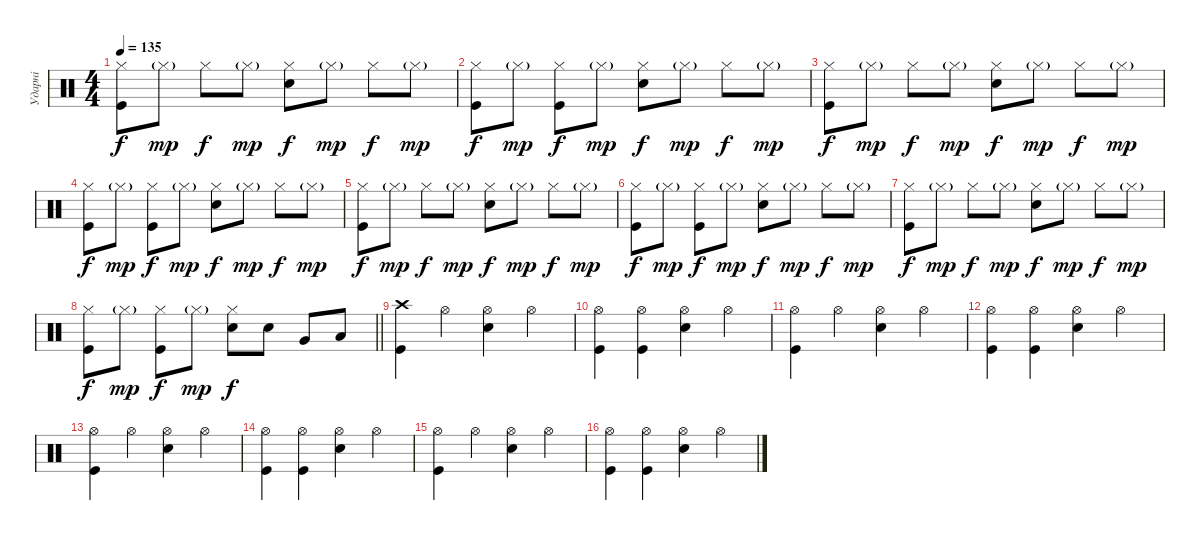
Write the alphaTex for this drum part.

\track ("Ударні" "Ударні") {instrument percussion}
\staff {score}
\articulation defaults
\ts (4 4)
\tempo 135
\clef neutral
\ks c
("Hi-Hat (closed)" "Kick (hit)").8{dy f} "Hi-Hat (closed)"{g}.8{dy mp} "Hi-Hat (closed)".8{dy f} "Hi-Hat (closed)"{g}.8{dy mp} ("Snare (hit) 2" "Hi-Hat (closed)").8{dy f} "Hi-Hat (closed)"{g}.8{dy mp} "Hi-Hat (closed)".8{dy f} "Hi-Hat (closed)"{g}.8{dy mp} |
("Hi-Hat (closed)" "Kick (hit)").8{dy f} "Hi-Hat (closed)"{g}.8{dy mp} ("Hi-Hat (closed)" "Kick (hit)").8{dy f} "Hi-Hat (closed)"{g}.8{dy mp} ("Snare (hit) 2" "Hi-Hat (closed)").8{dy f} "Hi-Hat (closed)"{g}.8{dy mp} "Hi-Hat (closed)".8{dy f} "Hi-Hat (closed)"{g}.8{dy mp} |
("Hi-Hat (closed)" "Kick (hit)").8{dy f} "Hi-Hat (closed)"{g}.8{dy mp} "Hi-Hat (closed)".8{dy f} "Hi-Hat (closed)"{g}.8{dy mp} ("Snare (hit) 2" "Hi-Hat (closed)").8{dy f} "Hi-Hat (closed)"{g}.8{dy mp} "Hi-Hat (closed)".8{dy f} "Hi-Hat (closed)"{g}.8{dy mp} |
("Hi-Hat (closed)" "Kick (hit)").8{dy f} "Hi-Hat (closed)"{g}.8{dy mp} ("Hi-Hat (closed)" "Kick (hit)").8{dy f} "Hi-Hat (closed)"{g}.8{dy mp} ("Snare (hit) 2" "Hi-Hat (closed)").8{dy f} "Hi-Hat (closed)"{g}.8{dy mp} "Hi-Hat (closed)".8{dy f} "Hi-Hat (closed)"{g}.8{dy mp} |
("Hi-Hat (closed)" "Kick (hit)").8{dy f} "Hi-Hat (closed)"{g}.8{dy mp} "Hi-Hat (closed)".8{dy f} "Hi-Hat (closed)"{g}.8{dy mp} ("Snare (hit) 2" "Hi-Hat (closed)").8{dy f} "Hi-Hat (closed)"{g}.8{dy mp} "Hi-Hat (closed)".8{dy f} "Hi-Hat (closed)"{g}.8{dy mp} |
("Hi-Hat (closed)" "Kick (hit)").8{dy f} "Hi-Hat (closed)"{g}.8{dy mp} ("Hi-Hat (closed)" "Kick (hit)").8{dy f} "Hi-Hat (closed)"{g}.8{dy mp} ("Snare (hit) 2" "Hi-Hat (closed)").8{dy f} "Hi-Hat (closed)"{g}.8{dy mp} "Hi-Hat (closed)".8{dy f} "Hi-Hat (closed)"{g}.8{dy mp} |
("Hi-Hat (closed)" "Kick (hit)").8{dy f} "Hi-Hat (closed)"{g}.8{dy mp} "Hi-Hat (closed)".8{dy f} "Hi-Hat (closed)"{g}.8{dy mp} ("Snare (hit) 2" "Hi-Hat (closed)").8{dy f} "Hi-Hat (closed)"{g}.8{dy mp} "Hi-Hat (closed)".8{dy f} "Hi-Hat (closed)"{g}.8{dy mp} |
\barLineRight lightlight
("Hi-Hat (closed)" "Kick (hit)").8{dy f} "Hi-Hat (closed)"{g}.8{dy mp} ("Hi-Hat (closed)" "Kick (hit)").8{dy f} "Hi-Hat (closed)"{g}.8{dy mp} ("Snare (hit) 2" "Hi-Hat (closed)").8{dy f} "Snare (hit) 2".8 "Very Low Tom (hit)".8 "Low Floor Tom (hit)".8 |
("Crash high (hit)" "Kick (hit)").4 "Hi-Hat (open)".4 ("Snare (hit) 2" "Hi-Hat (open)").4 "Hi-Hat (open)".4 |
("Hi-Hat (open)" "Kick (hit)").4 ("Hi-Hat (open)" "Kick (hit)").4 ("Snare (hit) 2" "Hi-Hat (open)").4 "Hi-Hat (open)".4 |
("Hi-Hat (open)" "Kick (hit)").4 "Hi-Hat (open)".4 ("Snare (hit) 2" "Hi-Hat (open)").4 "Hi-Hat (open)".4 |
("Hi-Hat (open)" "Kick (hit)").4 ("Hi-Hat (open)" "Kick (hit)").4 ("Snare (hit) 2" "Hi-Hat (open)").4 "Hi-Hat (open)".4 |
("Hi-Hat (open)" "Kick (hit)").4 "Hi-Hat (open)".4 ("Snare (hit) 2" "Hi-Hat (open)").4 "Hi-Hat (open)".4 |
("Hi-Hat (open)" "Kick (hit)").4 ("Hi-Hat (open)" "Kick (hit)").4 ("Snare (hit) 2" "Hi-Hat (open)").4 "Hi-Hat (open)".4 |
("Hi-Hat (open)" "Kick (hit)").4 "Hi-Hat (open)".4 ("Snare (hit) 2" "Hi-Hat (open)").4 "Hi-Hat (open)".4 |
("Hi-Hat (open)" "Kick (hit)").4 ("Hi-Hat (open)" "Kick (hit)").4 ("Snare (hit) 2" "Hi-Hat (open)").4 "Hi-Hat (open)".4
